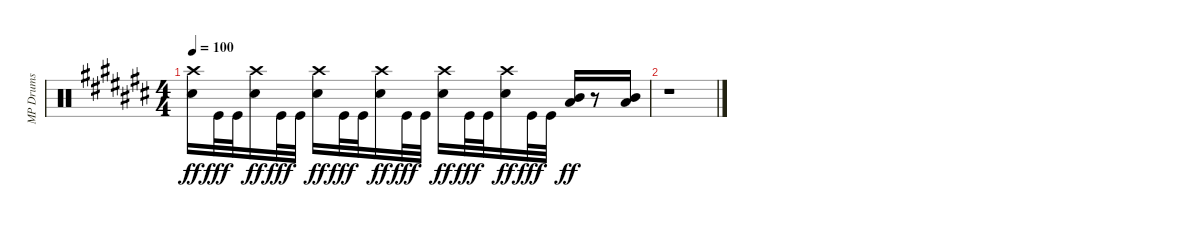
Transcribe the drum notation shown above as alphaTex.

\track ("MP Drums" "MP Drums") {instrument percussion}
\staff {score}
\articulation defaults
\ts (4 4)
\tempo 100
\clef neutral
\ks c#
("Crash high (hit)" "Snare (hit) 2").16{dy ff} "Kick (hit)".32{dy fff} "Kick (hit)".32 ("Crash high (hit)" "Snare (hit) 2").16{dy ff} "Kick (hit)".32{dy fff} "Kick (hit)".32 ("Crash high (hit)" "Snare (hit) 2").16{dy ff} "Kick (hit)".32{dy fff} "Kick (hit)".32 ("Crash high (hit)" "Snare (hit) 2").16{dy ff} "Kick (hit)".32{dy fff} "Kick (hit)".32 ("Crash high (hit)" "Snare (hit) 2").16{dy ff} "Kick (hit)".32{dy fff} "Kick (hit)".32 ("Crash high (hit)" "Snare (hit) 2").16{dy ff} "Kick (hit)".32{dy fff} "Kick (hit)".32 ("Mid Tom (hit)" "Low Tom (hit)").16{dy ff} r.8 ("Mid Tom (hit)" "Low Tom (hit)").16 |
r.1
